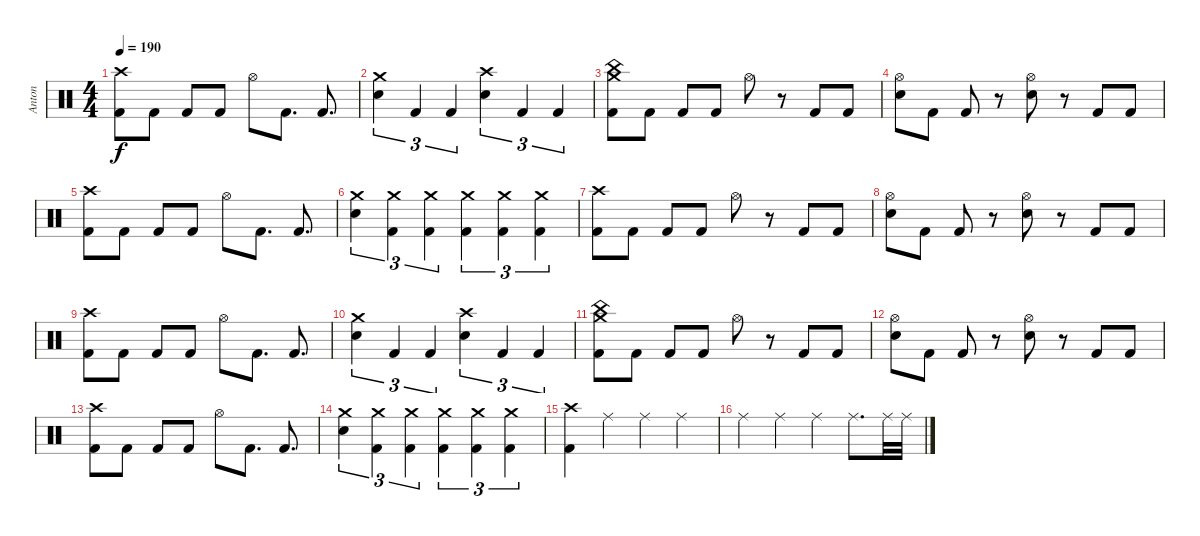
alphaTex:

\track ("Anton" "Anton") {instrument percussion}
\staff {score}
\articulation defaults
\ts (4 4)
\tempo 190
\clef neutral
\ks c
("Crash high (hit)" "Kick (hit) 2").8{dy f} "Kick (hit) 2".8 "Kick (hit) 2".8 "Kick (hit) 2".8 "Hi-Hat (open)".8 "Kick (hit) 2".8{d} "Kick (hit) 2".8{d} |
("Crash medium (hit)" "Electric Snare (hit)").4{tu (3 2)} "Kick (hit) 2".4{tu (3 2)} "Kick (hit) 2".4{tu (3 2)} ("Crash high (hit)" "Electric Snare (hit)").4{tu (3 2)} "Kick (hit) 2".4{tu (3 2)} "Kick (hit) 2".4{tu (3 2)} |
("China (hit)" "Crash medium (hit)" "Kick (hit) 2").8 "Kick (hit) 2".8 "Kick (hit) 2".8 "Kick (hit) 2".8 "Hi-Hat (open)".8 r.8 "Kick (hit) 2".8 "Kick (hit) 2".8 |
("Hi-Hat (open)" "Electric Snare (hit)").8 "Kick (hit) 2".8 "Kick (hit) 2".8 r.8 ("Hi-Hat (open)" "Electric Snare (hit)").8 r.8 "Kick (hit) 2".8 "Kick (hit) 2".8 |
("Crash high (hit)" "Kick (hit) 2").8 "Kick (hit) 2".8 "Kick (hit) 2".8 "Kick (hit) 2".8 "Hi-Hat (open)".8 "Kick (hit) 2".8{d} "Kick (hit) 2".8{d} |
("Crash medium (hit)" "Electric Snare (hit)").4{tu (3 2)} ("Crash medium (hit)" "Kick (hit) 2").4{tu (3 2)} ("Crash medium (hit)" "Kick (hit) 2").4{tu (3 2)} ("Crash medium (hit)" "Kick (hit) 2").4{tu (3 2)} ("Crash medium (hit)" "Kick (hit) 2").4{tu (3 2)} ("Crash medium (hit)" "Kick (hit) 2").4{tu (3 2)} |
("Crash high (hit)" "Kick (hit) 2").8 "Kick (hit) 2".8 "Kick (hit) 2".8 "Kick (hit) 2".8 "Hi-Hat (open)".8 r.8 "Kick (hit) 2".8 "Kick (hit) 2".8 |
("Hi-Hat (open)" "Electric Snare (hit)").8 "Kick (hit) 2".8 "Kick (hit) 2".8 r.8 ("Hi-Hat (open)" "Electric Snare (hit)").8 r.8 "Kick (hit) 2".8 "Kick (hit) 2".8 |
("Crash high (hit)" "Kick (hit) 2").8 "Kick (hit) 2".8 "Kick (hit) 2".8 "Kick (hit) 2".8 "Hi-Hat (open)".8 "Kick (hit) 2".8{d} "Kick (hit) 2".8{d} |
("Crash medium (hit)" "Electric Snare (hit)").4{tu (3 2)} "Kick (hit) 2".4{tu (3 2)} "Kick (hit) 2".4{tu (3 2)} ("Crash high (hit)" "Electric Snare (hit)").4{tu (3 2)} "Kick (hit) 2".4{tu (3 2)} "Kick (hit) 2".4{tu (3 2)} |
("China (hit)" "Crash medium (hit)" "Kick (hit) 2").8 "Kick (hit) 2".8 "Kick (hit) 2".8 "Kick (hit) 2".8 "Hi-Hat (open)".8 r.8 "Kick (hit) 2".8 "Kick (hit) 2".8 |
("Hi-Hat (open)" "Electric Snare (hit)").8 "Kick (hit) 2".8 "Kick (hit) 2".8 r.8 ("Hi-Hat (open)" "Electric Snare (hit)").8 r.8 "Kick (hit) 2".8 "Kick (hit) 2".8 |
("Crash high (hit)" "Kick (hit) 2").8 "Kick (hit) 2".8 "Kick (hit) 2".8 "Kick (hit) 2".8 "Hi-Hat (open)".8 "Kick (hit) 2".8{d} "Kick (hit) 2".8{d} |
("Crash medium (hit)" "Electric Snare (hit)").4{tu (3 2)} ("Crash medium (hit)" "Kick (hit) 2").4{tu (3 2)} ("Crash medium (hit)" "Kick (hit) 2").4{tu (3 2)} ("Crash medium (hit)" "Kick (hit) 2").4{tu (3 2)} ("Crash medium (hit)" "Kick (hit) 2").4{tu (3 2)} ("Crash medium (hit)" "Kick (hit) 2").4{tu (3 2)} |
("Crash high (hit)" "Kick (hit) 2").4 "Ride (middle)".4 "Ride (middle)".4 "Ride (middle)".4 |
"Ride (middle)".4 "Ride (middle)".4 "Ride (middle)".4 "Ride (middle)".8{d} "Ride (middle)".32 "Ride (middle)".32
